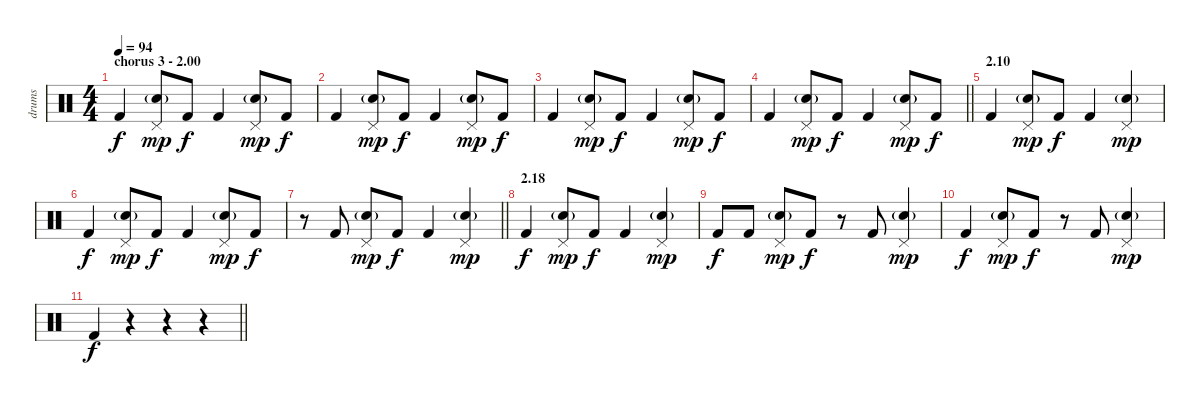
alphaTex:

\track ("drums" "drums") {instrument percussion}
\staff {score}
\articulation defaults
\ts (4 4)
\section ("" "chorus 3 - 2.00")
\tempo 94
\clef neutral
\ks c "Kick (hit) 2".4{dy f}
("Pedal Hi-Hat (hit)" "Electric Snare (hit)"{g}).8{dy mp} "Kick (hit) 2".8{dy f} "Kick (hit) 2".4 ("Pedal Hi-Hat (hit)" "Electric Snare (hit)"{g}).8{dy mp} "Kick (hit) 2".8{dy f} |
"Kick (hit) 2".4 ("Pedal Hi-Hat (hit)" "Electric Snare (hit)"{g}).8{dy mp} "Kick (hit) 2".8{dy f} "Kick (hit) 2".4 ("Pedal Hi-Hat (hit)" "Electric Snare (hit)"{g}).8{dy mp} "Kick (hit) 2".8{dy f} |
"Kick (hit) 2".4 ("Pedal Hi-Hat (hit)" "Electric Snare (hit)"{g}).8{dy mp} "Kick (hit) 2".8{dy f} "Kick (hit) 2".4 ("Pedal Hi-Hat (hit)" "Electric Snare (hit)"{g}).8{dy mp} "Kick (hit) 2".8{dy f} |
\barLineRight lightlight "Kick (hit) 2".4
("Pedal Hi-Hat (hit)" "Electric Snare (hit)"{g}).8{dy mp} "Kick (hit) 2".8{dy f} "Kick (hit) 2".4 ("Pedal Hi-Hat (hit)" "Electric Snare (hit)"{g}).8{dy mp} "Kick (hit) 2".8{dy f} |
\section ("" "2.10")
"Kick (hit) 2".4 ("Pedal Hi-Hat (hit)" "Electric Snare (hit)"{g}).8{dy mp} "Kick (hit) 2".8{dy f} "Kick (hit) 2".4 ("Pedal Hi-Hat (hit)" "Electric Snare (hit)"{g}).4{dy mp} |
"Kick (hit) 2".4{dy f} ("Pedal Hi-Hat (hit)" "Electric Snare (hit)"{g}).8{dy mp} "Kick (hit) 2".8{dy f} "Kick (hit) 2".4 ("Pedal Hi-Hat (hit)" "Electric Snare (hit)"{g}).8{dy mp} "Kick (hit) 2".8{dy f} |
\barLineRight lightlight
r.8 "Kick (hit) 2".8 ("Pedal Hi-Hat (hit)" "Electric Snare (hit)"{g}).8{dy mp} "Kick (hit) 2".8{dy f} "Kick (hit) 2".4 ("Pedal Hi-Hat (hit)" "Electric Snare (hit)"{g}).4{dy mp} |
\section ("" "2.18")
"Kick (hit) 2".4{dy f} ("Pedal Hi-Hat (hit)" "Electric Snare (hit)"{g}).8{dy mp} "Kick (hit) 2".8{dy f} "Kick (hit) 2".4 ("Pedal Hi-Hat (hit)" "Electric Snare (hit)"{g}).4{dy mp} |
"Kick (hit) 2".8{dy f} "Kick (hit) 2".8 ("Pedal Hi-Hat (hit)" "Electric Snare (hit)"{g}).8{dy mp} "Kick (hit) 2".8{dy f} r.8 "Kick (hit) 2".8 ("Pedal Hi-Hat (hit)" "Electric Snare (hit)"{g}).4{dy mp} |
"Kick (hit) 2".4{dy f} ("Pedal Hi-Hat (hit)" "Electric Snare (hit)"{g}).8{dy mp} "Kick (hit) 2".8{dy f} r.8 "Kick (hit) 2".8 ("Pedal Hi-Hat (hit)" "Electric Snare (hit)"{g}).4{dy mp} |
\barLineRight lightlight "Kick (hit) 2".4{dy f}
r.4 r.4 r.4
